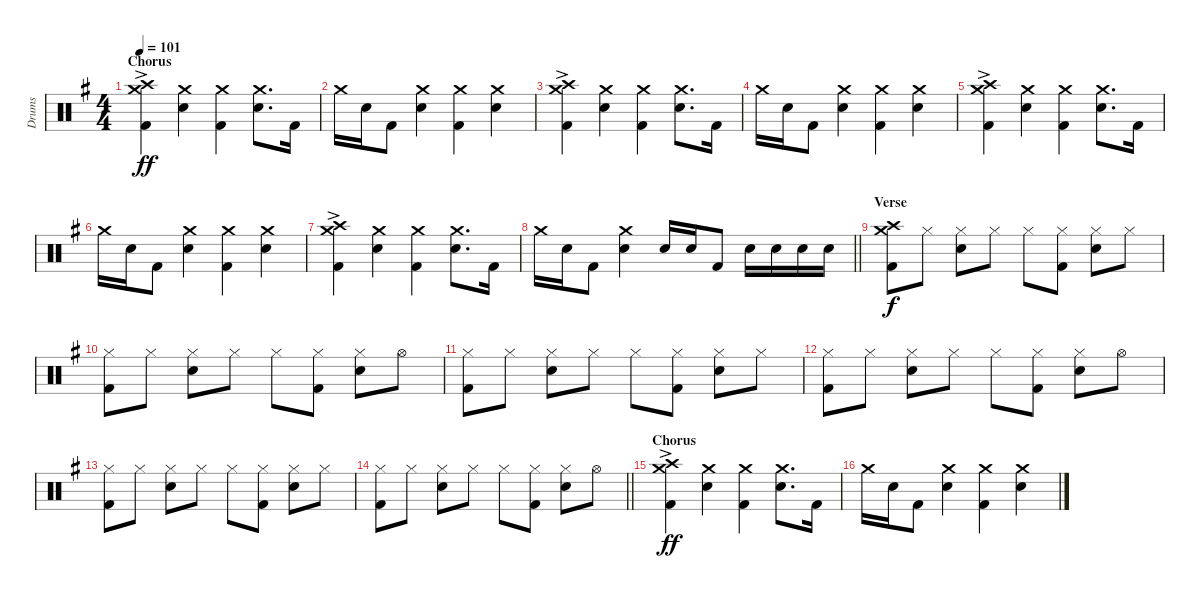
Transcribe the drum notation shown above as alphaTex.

\track ("Drums" "Drums") {instrument percussion}
\staff {score}
\articulation defaults
\ts (4 4)
\section ("" "Chorus")
\tempo 101
\clef neutral
\ks eminor
("Crash medium (hit)"{ac} "Crash high (hit)"{ac} "Kick (hit) 2").4{dy ff} ("Crash medium (hit)" "Snare (hit) 2").4 ("Crash medium (hit)" "Kick (hit) 2").4 ("Crash medium (hit)" "Snare (hit) 2").8{d} "Kick (hit) 2".16 |
"Crash medium (hit)".16 "Snare (hit) 2".16 "Kick (hit) 2".8 ("Crash medium (hit)" "Snare (hit) 2").4 ("Crash medium (hit)" "Kick (hit) 2").4 ("Crash medium (hit)" "Snare (hit) 2").4 |
("Crash medium (hit)"{ac} "Crash high (hit)"{ac} "Kick (hit) 2").4 ("Crash medium (hit)" "Snare (hit) 2").4 ("Crash medium (hit)" "Kick (hit) 2").4 ("Crash medium (hit)" "Snare (hit) 2").8{d} "Kick (hit) 2".16 |
"Crash medium (hit)".16 "Snare (hit) 2".16 "Kick (hit) 2".8 ("Crash medium (hit)" "Snare (hit) 2").4 ("Crash medium (hit)" "Kick (hit) 2").4 ("Crash medium (hit)" "Snare (hit) 2").4 |
("Crash medium (hit)"{ac} "Crash high (hit)"{ac} "Kick (hit) 2").4 ("Crash medium (hit)" "Snare (hit) 2").4 ("Crash medium (hit)" "Kick (hit) 2").4 ("Crash medium (hit)" "Snare (hit) 2").8{d} "Kick (hit) 2".16 |
"Crash medium (hit)".16 "Snare (hit) 2".16 "Kick (hit) 2".8 ("Crash medium (hit)" "Snare (hit) 2").4 ("Crash medium (hit)" "Kick (hit) 2").4 ("Crash medium (hit)" "Snare (hit) 2").4 |
("Crash medium (hit)"{ac} "Crash high (hit)"{ac} "Kick (hit) 2").4 ("Crash medium (hit)" "Snare (hit) 2").4 ("Crash medium (hit)" "Kick (hit) 2").4 ("Crash medium (hit)" "Snare (hit) 2").8{d} "Kick (hit) 2".16 |
\barLineRight lightlight "Crash medium (hit)".16 "Snare (hit) 2".16 "Kick (hit) 2".8
("Crash medium (hit)" "Snare (hit) 2").4 "Snare (hit) 2".16 "Snare (hit) 2".16 "Kick (hit) 2".8 "Snare (hit) 2".16 "Snare (hit) 2".16 "Snare (hit) 2".16 "Snare (hit) 2".16 |
\section ("" "Verse")
("Crash high (hit)" "Crash medium (hit)" "Kick (hit) 2").8{dy f} "Hi-Hat (closed)".8 ("Hi-Hat (closed)" "Snare (hit) 2").8 "Hi-Hat (closed)".8 "Hi-Hat (closed)".8 ("Hi-Hat (closed)" "Kick (hit) 2").8 ("Hi-Hat (closed)" "Snare (hit) 2").8 "Hi-Hat (closed)".8 |
("Hi-Hat (closed)" "Kick (hit) 2").8 "Hi-Hat (closed)".8 ("Hi-Hat (closed)" "Snare (hit) 2").8 "Hi-Hat (closed)".8 "Hi-Hat (closed)".8 ("Hi-Hat (closed)" "Kick (hit) 2").8 ("Hi-Hat (closed)" "Snare (hit) 2").8 "Hi-Hat (open)".8 |
("Hi-Hat (closed)" "Kick (hit) 2").8 "Hi-Hat (closed)".8 ("Hi-Hat (closed)" "Snare (hit) 2").8 "Hi-Hat (closed)".8 "Hi-Hat (closed)".8 ("Hi-Hat (closed)" "Kick (hit) 2").8 ("Hi-Hat (closed)" "Snare (hit) 2").8 "Hi-Hat (closed)".8 |
("Hi-Hat (closed)" "Kick (hit) 2").8 "Hi-Hat (closed)".8 ("Hi-Hat (closed)" "Snare (hit) 2").8 "Hi-Hat (closed)".8 "Hi-Hat (closed)".8 ("Hi-Hat (closed)" "Kick (hit) 2").8 ("Hi-Hat (closed)" "Snare (hit) 2").8 "Hi-Hat (open)".8 |
("Hi-Hat (closed)" "Kick (hit) 2").8 "Hi-Hat (closed)".8 ("Hi-Hat (closed)" "Snare (hit) 2").8 "Hi-Hat (closed)".8 "Hi-Hat (closed)".8 ("Hi-Hat (closed)" "Kick (hit) 2").8 ("Hi-Hat (closed)" "Snare (hit) 2").8 "Hi-Hat (closed)".8 |
\barLineRight lightlight
("Hi-Hat (closed)" "Kick (hit) 2").8 "Hi-Hat (closed)".8 ("Hi-Hat (closed)" "Snare (hit) 2").8 "Hi-Hat (closed)".8 "Hi-Hat (closed)".8 ("Hi-Hat (closed)" "Kick (hit) 2").8 ("Hi-Hat (closed)" "Snare (hit) 2").8 "Hi-Hat (open)".8 |
\section ("" "Chorus")
("Crash medium (hit)"{ac} "Crash high (hit)"{ac} "Kick (hit) 2").4{dy ff} ("Crash medium (hit)" "Snare (hit) 2").4 ("Crash medium (hit)" "Kick (hit) 2").4 ("Crash medium (hit)" "Snare (hit) 2").8{d} "Kick (hit) 2".16 |
"Crash medium (hit)".16 "Snare (hit) 2".16 "Kick (hit) 2".8 ("Crash medium (hit)" "Snare (hit) 2").4 ("Crash medium (hit)" "Kick (hit) 2").4 ("Crash medium (hit)" "Snare (hit) 2").4
